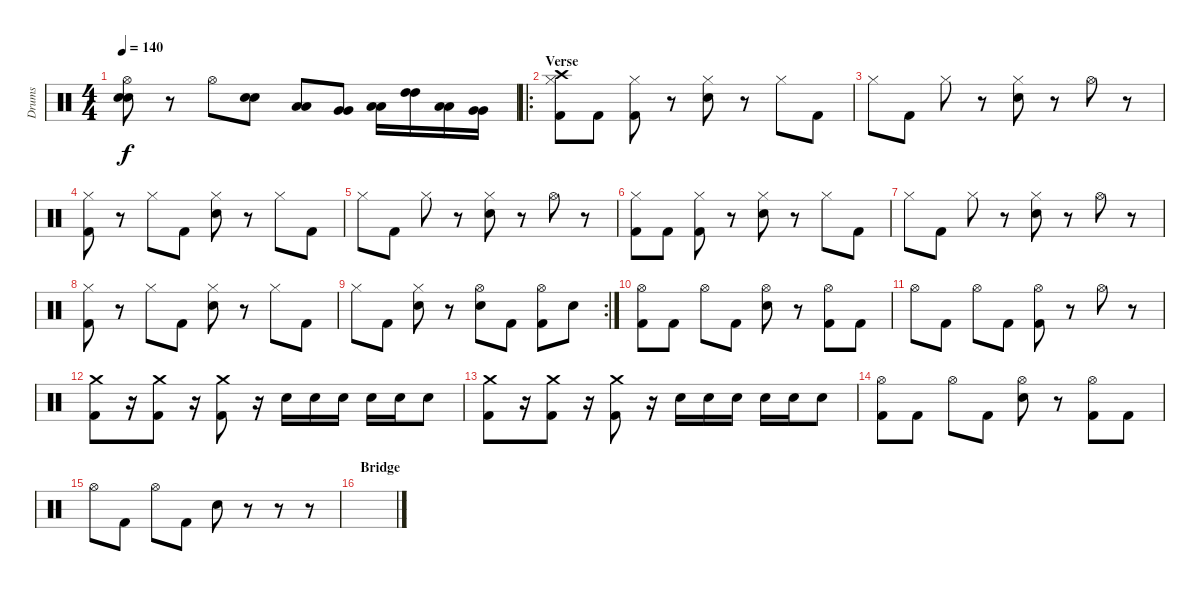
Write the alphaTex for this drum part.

\track ("Drums" "Drums") {instrument percussion}
\staff {score}
\articulation defaults
\ts (4 4)
\tempo 140
\clef neutral
\ks c
("Hi-Hat (open)" "Electric Snare (hit)" "Electric Snare (hit)").8{dy f} r.8 "Hi-Hat (open)".8 ("Electric Snare (hit)" "Electric Snare (hit)").8 ("Low Tom (hit)" "Low Tom (hit)").8 ("Very Low Tom (hit)" "Very Low Tom (hit)").8 ("Low Tom (hit)" "Low Tom (hit)").16 ("High Tom (hit)" "High Tom (hit)").16 ("Low Tom (hit)" "Low Tom (hit)").16 ("Very Low Tom (hit)" "Very Low Tom (hit)").16 |
\ro
\section ("" "Verse")
("Crash high (hit)" "Hi-Hat (closed)" "Kick (hit) 2").8 "Kick (hit) 2".8 ("Hi-Hat (closed)" "Kick (hit) 2").8 r.8 ("Hi-Hat (closed)" "Electric Snare (hit)").8 r.8 "Hi-Hat (closed)".8 "Kick (hit) 2".8 |
"Hi-Hat (closed)".8 "Kick (hit) 2".8 "Hi-Hat (closed)".8 r.8 ("Hi-Hat (closed)" "Electric Snare (hit)").8 r.8 "Hi-Hat (open)".8 r.8 |
("Hi-Hat (closed)" "Kick (hit) 2").8 r.8 "Hi-Hat (closed)".8 "Kick (hit) 2".8 ("Hi-Hat (closed)" "Electric Snare (hit)").8 r.8 "Hi-Hat (closed)".8 "Kick (hit) 2".8 |
"Hi-Hat (closed)".8 "Kick (hit) 2".8 "Hi-Hat (closed)".8 r.8 ("Hi-Hat (closed)" "Electric Snare (hit)").8 r.8 "Hi-Hat (open)".8 r.8 |
("Hi-Hat (closed)" "Kick (hit) 2").8 "Kick (hit) 2".8 ("Hi-Hat (closed)" "Kick (hit) 2").8 r.8 ("Hi-Hat (closed)" "Electric Snare (hit)").8 r.8 "Hi-Hat (closed)".8 "Kick (hit) 2".8 |
"Hi-Hat (closed)".8 "Kick (hit) 2".8 "Hi-Hat (closed)".8 r.8 ("Hi-Hat (closed)" "Electric Snare (hit)").8 r.8 "Hi-Hat (open)".8 r.8 |
("Hi-Hat (closed)" "Kick (hit) 2").8 r.8 "Hi-Hat (closed)".8 "Kick (hit) 2".8 ("Hi-Hat (closed)" "Electric Snare (hit)").8 r.8 "Hi-Hat (closed)".8 "Kick (hit) 2".8 |
\rc 2 "Hi-Hat (closed)".8 "Kick (hit) 2".8
("Hi-Hat (closed)" "Electric Snare (hit)").8 r.8 ("Hi-Hat (open)" "Electric Snare (hit)").8 "Kick (hit) 2".8 ("Hi-Hat (open)" "Kick (hit) 2").8 "Electric Snare (hit)".8 |
("Hi-Hat (open)" "Kick (hit) 2").8 "Kick (hit) 2".8 "Hi-Hat (open)".8 "Kick (hit) 2".8 ("Hi-Hat (open)" "Electric Snare (hit)").8 r.8 ("Hi-Hat (open)" "Kick (hit) 2").8 "Kick (hit) 2".8 |
"Hi-Hat (open)".8 "Kick (hit) 2".8 "Hi-Hat (open)".8 "Kick (hit) 2".8 ("Hi-Hat (open)" "Kick (hit) 2").8 r.8 "Hi-Hat (open)".8 r.8 |
("Crash medium (hit)" "Kick (hit) 2").8 r.16 ("Crash medium (hit)" "Kick (hit) 2").8 r.16 ("Crash medium (hit)" "Kick (hit) 2").8 r.16 "Electric Snare (hit)".16 "Electric Snare (hit)".16 "Electric Snare (hit)".16 "Electric Snare (hit)".16 "Electric Snare (hit)".16 "Electric Snare (hit)".8 |
("Crash medium (hit)" "Kick (hit) 2").8 r.16 ("Crash medium (hit)" "Kick (hit) 2").8 r.16 ("Crash medium (hit)" "Kick (hit) 2").8 r.16 "Electric Snare (hit)".16 "Electric Snare (hit)".16 "Electric Snare (hit)".16 "Electric Snare (hit)".16 "Electric Snare (hit)".16 "Electric Snare (hit)".8 |
("Hi-Hat (open)" "Kick (hit) 2").8 "Kick (hit) 2".8 "Hi-Hat (open)".8 "Kick (hit) 2".8 ("Hi-Hat (open)" "Electric Snare (hit)").8 r.8 ("Hi-Hat (open)" "Kick (hit) 2").8 "Kick (hit) 2".8 |
"Hi-Hat (open)".8 "Kick (hit) 2".8 "Hi-Hat (open)".8 "Kick (hit) 2".8 "Electric Snare (hit)".8 r.8 r.8 r.8 |
\section ("" "Bridge")
